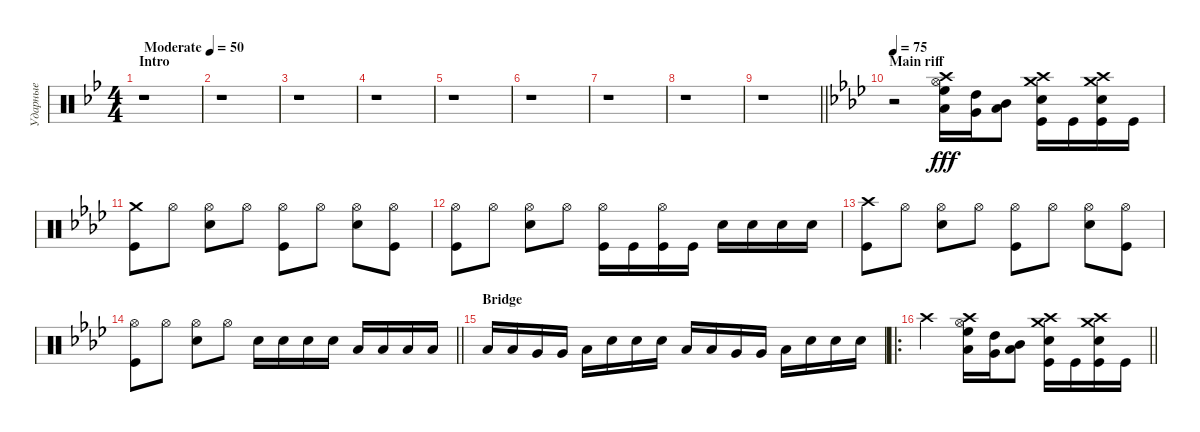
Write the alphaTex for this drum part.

\track ("Ударные" "Ударные") {instrument percussion}
\staff {score}
\articulation defaults
\ts (4 4)
\section ("" "Intro")
\tempo (50 "Moderate")
\clef neutral
\ks gminor
r.1{dy fff} |
r.1 |
r.1 |
r.1 |
r.1 |
r.1 |
r.1 |
r.1 |
\barLineRight lightlight
r.1 |
\section ("" "Main riff")
\tempo 75
\ks fminor
r.2 ("Crash high (hit)" "Hi-Hat (open)" "Low Tom (hit)" "High Floor Tom (hit)").16 ("Very Low Tom (hit)" "High Tom (hit)").16 ("Low Floor Tom (hit)" "Mid Tom (hit)").8 ("Crash medium (hit)" "Crash high (hit)" "Snare (hit) 2" "Kick (hit)").16 "Kick (hit)".16 ("Crash medium (hit)" "Crash high (hit)" "Snare (hit) 2" "Kick (hit)").16 "Kick (hit)".16 |
("Crash medium (hit)" "Kick (hit)").8 "Hi-Hat (open)".8 ("Hi-Hat (open)" "Snare (hit) 2").8 "Hi-Hat (open)".8 ("Hi-Hat (open)" "Kick (hit)").8 "Hi-Hat (open)".8 ("Hi-Hat (open)" "Snare (hit) 2").8 ("Kick (hit)" "Hi-Hat (open)").8 |
("Hi-Hat (open)" "Kick (hit)").8 "Hi-Hat (open)".8 ("Hi-Hat (open)" "Snare (hit) 2").8 "Hi-Hat (open)".8 ("Hi-Hat (open)" "Kick (hit)").16 "Kick (hit)".16 ("Hi-Hat (open)" "Kick (hit)").16 "Kick (hit)".16 "Snare (hit) 2".16 "Snare (hit) 2".16 "Snare (hit) 2".16 "Snare (hit) 2".16 |
("Crash high (hit)" "Kick (hit)").8 "Hi-Hat (open)".8 ("Hi-Hat (open)" "Snare (hit) 2").8 "Hi-Hat (open)".8 ("Hi-Hat (open)" "Kick (hit)").8 "Hi-Hat (open)".8 ("Hi-Hat (open)" "Snare (hit) 2").8 ("Hi-Hat (open)" "Kick (hit)").8 |
\barLineRight lightlight
("Hi-Hat (open)" "Kick (hit)").8 "Hi-Hat (open)".8 ("Hi-Hat (open)" "Snare (hit) 2").8 "Hi-Hat (open)".8 "Snare (hit) 2".16 "Snare (hit) 2".16 "Snare (hit) 2".16 "Snare (hit) 2".16 "Low Tom (hit)".16 "Low Tom (hit)".16 "Low Tom (hit)".16 "Low Tom (hit)".16 |
\section ("" "Bridge")
"Low Tom (hit)".16 "Low Tom (hit)".16 "Very Low Tom (hit)".16 "Very Low Tom (hit)".16 "Low Floor Tom (hit)".16 "Snare (hit) 2".16 "Snare (hit) 2".16 "Snare (hit) 2".16 "Low Tom (hit)".16 "Low Tom (hit)".16 "Very Low Tom (hit)".16 "Very Low Tom (hit)".16 "Low Floor Tom (hit)".16 "Snare (hit) 2".16 "Snare (hit) 2".16 "Snare (hit) 2".16 |
\ro
\barLineRight lightlight "Crash high (hit)".2
("Crash high (hit)" "Hi-Hat (open)" "Low Tom (hit)" "High Floor Tom (hit)").16 ("Very Low Tom (hit)" "High Tom (hit)").16 ("Low Floor Tom (hit)" "Mid Tom (hit)").8 ("Crash medium (hit)" "Crash high (hit)" "Snare (hit) 2" "Kick (hit)").16 "Kick (hit)".16 ("Crash medium (hit)" "Crash high (hit)" "Snare (hit) 2" "Kick (hit)").16 "Kick (hit)".16
